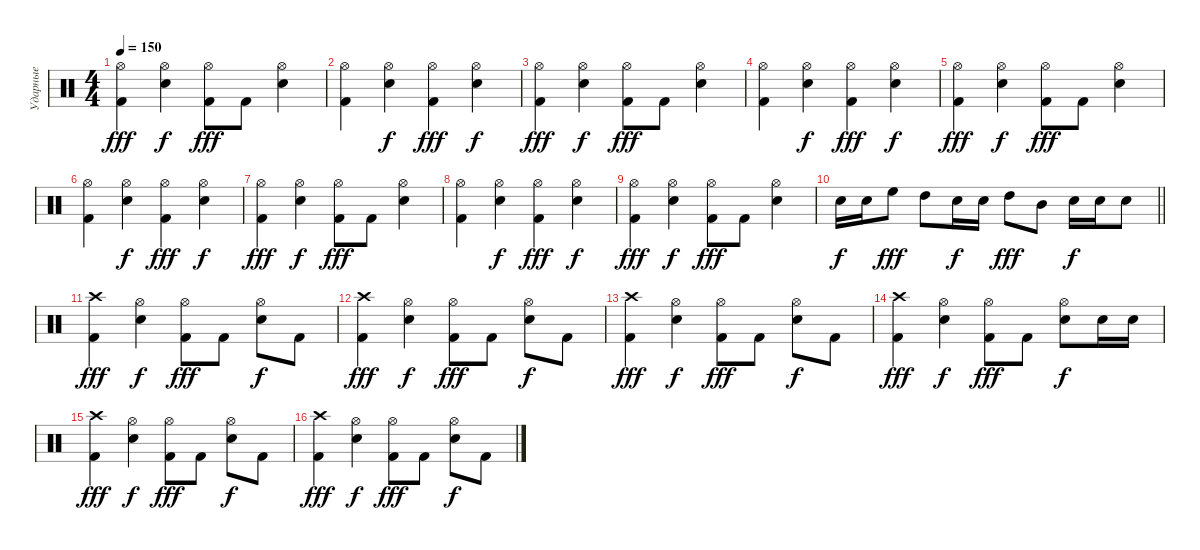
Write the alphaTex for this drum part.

\track ("Ударные" "Ударные") {instrument percussion}
\staff {score}
\articulation defaults
\ts (4 4)
\tempo 150
\clef neutral
\ks c
("Kick (hit) 2" "Hi-Hat (open)").4{dy fff} ("Snare (hit) 2" "Hi-Hat (open)").4{dy f} ("Kick (hit) 2" "Hi-Hat (open)").8{dy fff} "Kick (hit) 2".8 ("Snare (hit) 2" "Hi-Hat (open)").4 |
("Kick (hit) 2" "Hi-Hat (open)").4 ("Snare (hit) 2" "Hi-Hat (open)").4{dy f} ("Kick (hit) 2" "Hi-Hat (open)").4{dy fff} ("Snare (hit) 2" "Hi-Hat (open)").4{dy f} |
("Kick (hit) 2" "Hi-Hat (open)").4{dy fff} ("Snare (hit) 2" "Hi-Hat (open)").4{dy f} ("Kick (hit) 2" "Hi-Hat (open)").8{dy fff} "Kick (hit) 2".8 ("Snare (hit) 2" "Hi-Hat (open)").4 |
("Kick (hit) 2" "Hi-Hat (open)").4 ("Snare (hit) 2" "Hi-Hat (open)").4{dy f} ("Kick (hit) 2" "Hi-Hat (open)").4{dy fff} ("Snare (hit) 2" "Hi-Hat (open)").4{dy f} |
("Kick (hit) 2" "Hi-Hat (open)").4{dy fff} ("Snare (hit) 2" "Hi-Hat (open)").4{dy f} ("Kick (hit) 2" "Hi-Hat (open)").8{dy fff} "Kick (hit) 2".8 ("Snare (hit) 2" "Hi-Hat (open)").4 |
("Kick (hit) 2" "Hi-Hat (open)").4 ("Snare (hit) 2" "Hi-Hat (open)").4{dy f} ("Kick (hit) 2" "Hi-Hat (open)").4{dy fff} ("Snare (hit) 2" "Hi-Hat (open)").4{dy f} |
("Kick (hit) 2" "Hi-Hat (open)").4{dy fff} ("Snare (hit) 2" "Hi-Hat (open)").4{dy f} ("Kick (hit) 2" "Hi-Hat (open)").8{dy fff} "Kick (hit) 2".8 ("Snare (hit) 2" "Hi-Hat (open)").4 |
("Kick (hit) 2" "Hi-Hat (open)").4 ("Snare (hit) 2" "Hi-Hat (open)").4{dy f} ("Kick (hit) 2" "Hi-Hat (open)").4{dy fff} ("Snare (hit) 2" "Hi-Hat (open)").4{dy f} |
("Kick (hit) 2" "Hi-Hat (open)").4{dy fff} ("Snare (hit) 2" "Hi-Hat (open)").4{dy f} ("Kick (hit) 2" "Hi-Hat (open)").8{dy fff} "Kick (hit) 2".8 ("Snare (hit) 2" "Hi-Hat (open)").4 |
\barLineRight lightlight "Snare (hit) 2".16{dy f} "Snare (hit) 2".16 "High Floor Tom (hit)".8{dy fff} "High Tom (hit)".8 "Snare (hit) 2".16{dy f} "Snare (hit) 2".16 "High Tom (hit)".8{dy fff} "Mid Tom (hit)".8 "Snare (hit) 2".16{dy f} "Snare (hit) 2".16 "Snare (hit) 2".8
|
("Kick (hit) 2" "Crash high (hit)").4{dy fff} ("Snare (hit) 2" "Hi-Hat (open)").4{dy f} ("Kick (hit) 2" "Hi-Hat (open)").8{dy fff} "Kick (hit) 2".8 ("Snare (hit) 2" "Hi-Hat (open)").8{dy f} "Kick (hit) 2".8 |
("Kick (hit) 2" "Crash high (hit)").4{dy fff} ("Snare (hit) 2" "Hi-Hat (open)").4{dy f} ("Kick (hit) 2" "Hi-Hat (open)").8{dy fff} "Kick (hit) 2".8 ("Snare (hit) 2" "Hi-Hat (open)").8{dy f} "Kick (hit) 2".8 |
("Kick (hit) 2" "Crash high (hit)").4{dy fff} ("Snare (hit) 2" "Hi-Hat (open)").4{dy f} ("Kick (hit) 2" "Hi-Hat (open)").8{dy fff} "Kick (hit) 2".8 ("Snare (hit) 2" "Hi-Hat (open)").8{dy f} "Kick (hit) 2".8 |
("Kick (hit) 2" "Crash high (hit)").4{dy fff} ("Snare (hit) 2" "Hi-Hat (open)").4{dy f} ("Kick (hit) 2" "Hi-Hat (open)").8{dy fff} "Kick (hit) 2".8 ("Snare (hit) 2" "Hi-Hat (open)").8{dy f} "Snare (hit) 2".16 "Snare (hit) 2".16 |
("Kick (hit) 2" "Crash high (hit)").4{dy fff} ("Snare (hit) 2" "Hi-Hat (open)").4{dy f} ("Kick (hit) 2" "Hi-Hat (open)").8{dy fff} "Kick (hit) 2".8 ("Snare (hit) 2" "Hi-Hat (open)").8{dy f} "Kick (hit) 2".8 |
("Kick (hit) 2" "Crash high (hit)").4{dy fff} ("Snare (hit) 2" "Hi-Hat (open)").4{dy f} ("Kick (hit) 2" "Hi-Hat (open)").8{dy fff} "Kick (hit) 2".8 ("Snare (hit) 2" "Hi-Hat (open)").8{dy f} "Kick (hit) 2".8
